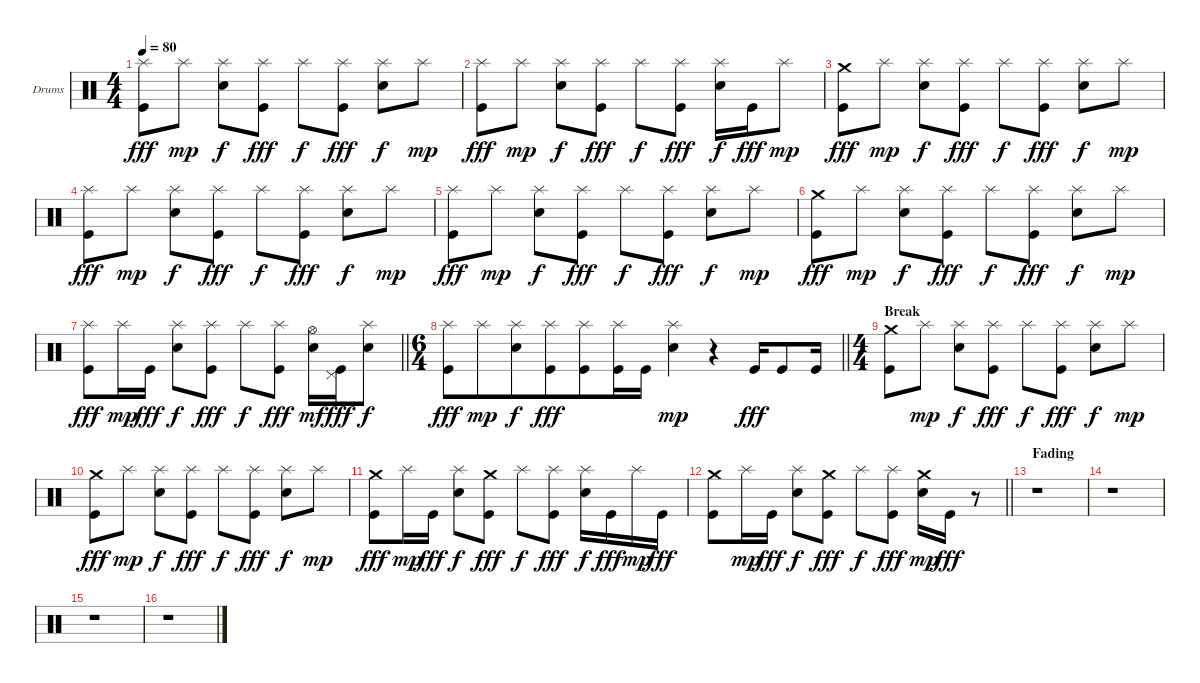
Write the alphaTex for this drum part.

\bracketExtendMode groupsimilarinstruments
\firstSystemTrackNameOrientation horizontal
\otherSystemsTrackNameOrientation horizontal
\track ("Drumkit" "Drums") {instrument percussion}
\staff {score}
\articulation defaults
\ts (4 4)
\tempo 80
\clef neutral
\ks c
("Kick (hit)" "Splash (hit)").8{dy fff} "Splash (hit)".8{dy mp} ("Splash (hit)" "Snare (hit) 2").8{dy f} ("Kick (hit)" "Splash (hit)").8{dy fff} "Splash (hit)".8{dy f} ("Kick (hit)" "Splash (hit)").8{dy fff} ("Splash (hit)" "Snare (hit) 2").8{dy f} "Splash (hit)".8{dy mp} |
("Kick (hit)" "Splash (hit)").8{dy fff} "Splash (hit)".8{dy mp} ("Splash (hit)" "Snare (hit) 2").8{dy f} ("Kick (hit)" "Splash (hit)").8{dy fff} "Splash (hit)".8{dy f} ("Kick (hit)" "Splash (hit)").8{dy fff} ("Splash (hit)" "Snare (hit) 2").16{dy f} "Kick (hit)".16{dy fff} "Splash (hit)".8{dy mp} |
("Kick (hit)" "Crash medium (hit)").8{dy fff} "Splash (hit)".8{dy mp} ("Splash (hit)" "Snare (hit) 2").8{dy f} ("Kick (hit)" "Splash (hit)").8{dy fff} "Splash (hit)".8{dy f} ("Kick (hit)" "Splash (hit)").8{dy fff} ("Splash (hit)" "Snare (hit) 2").8{dy f} "Splash (hit)".8{dy mp} |
("Kick (hit)" "Splash (hit)").8{dy fff} "Splash (hit)".8{dy mp} ("Splash (hit)" "Snare (hit) 2").8{dy f} ("Kick (hit)" "Splash (hit)").8{dy fff} "Splash (hit)".8{dy f} ("Kick (hit)" "Splash (hit)").8{dy fff} ("Splash (hit)" "Snare (hit) 2").8{dy f} "Splash (hit)".8{dy mp} |
("Kick (hit)" "Splash (hit)").8{dy fff} "Splash (hit)".8{dy mp} ("Splash (hit)" "Snare (hit) 2").8{dy f} ("Kick (hit)" "Splash (hit)").8{dy fff} "Splash (hit)".8{dy f} ("Kick (hit)" "Splash (hit)").8{dy fff} ("Splash (hit)" "Snare (hit) 2").8{dy f} "Splash (hit)".8{dy mp} |
("Kick (hit)" "Crash medium (hit)").8{dy fff} "Splash (hit)".8{dy mp} ("Splash (hit)" "Snare (hit) 2").8{dy f} ("Kick (hit)" "Splash (hit)").8{dy fff} "Splash (hit)".8{dy f} ("Kick (hit)" "Splash (hit)").8{dy fff} ("Splash (hit)" "Snare (hit) 2").8{dy f} "Splash (hit)".8{dy mp} |
\barLineRight lightlight
("Kick (hit)" "Splash (hit)").8{dy fff} "Splash (hit)".16{dy mp} "Kick (hit)".16{dy fff} ("Splash (hit)" "Snare (hit) 2").8{dy f} ("Kick (hit)" "Splash (hit)").8{dy fff} "Splash (hit)".8{dy f} ("Kick (hit)" "Splash (hit)").8{dy fff} ("Hi-Hat (open)" "Snare (hit) 2").16{dy mf} ("Kick (hit)" "Pedal Hi-Hat (hit)").16{dy fff} ("Splash (hit)" "Snare (hit) 2").8{dy f} |
\ts (6 4)
\beaming (8 6 6)
\barLineRight lightlight
("Kick (hit)" "Splash (hit)").8{dy fff} "Splash (hit)".8{dy mp} ("Splash (hit)" "Snare (hit) 2").8{dy f} ("Kick (hit)" "Splash (hit)").8{dy fff} ("Kick (hit)" "Splash (hit)").8 ("Kick (hit)" "Splash (hit)").16 "Kick (hit)".16 ("Splash (hit)" "Snare (hit) 2").4{dy mp} r.4 "Kick (hit)".16{dy fff} "Kick (hit)".8 "Kick (hit)".16 |
\ts (4 4)
\beaming (8 2 2 2 2)
\section ("" "Break")
("Kick (hit)" "Crash medium (hit)").8 "Splash (hit)".8{dy mp} ("Splash (hit)" "Snare (hit) 2").8{dy f} ("Kick (hit)" "Splash (hit)").8{dy fff} "Splash (hit)".8{dy f} ("Kick (hit)" "Splash (hit)").8{dy fff} ("Splash (hit)" "Snare (hit) 2").8{dy f} "Splash (hit)".8{dy mp} |
("Kick (hit)" "Crash medium (hit)").8{dy fff} "Splash (hit)".8{dy mp} ("Splash (hit)" "Snare (hit) 2").8{dy f} ("Kick (hit)" "Splash (hit)").8{dy fff} "Splash (hit)".8{dy f} ("Kick (hit)" "Splash (hit)").8{dy fff} ("Splash (hit)" "Snare (hit) 2").8{dy f} "Splash (hit)".8{dy mp} |
("Kick (hit)" "Crash medium (hit)").8{dy fff} "Splash (hit)".16{dy mp} "Kick (hit)".16{dy fff} ("Splash (hit)" "Snare (hit) 2").8{dy f} ("Kick (hit)" "Crash medium (hit)").8{dy fff} "Splash (hit)".8{dy f} ("Kick (hit)" "Splash (hit)").8{dy fff} ("Splash (hit)" "Snare (hit) 2").16{dy f} "Kick (hit)".16{dy fff} "Splash (hit)".16{dy mp} "Kick (hit)".16{dy fff} |
\barLineRight lightlight
("Kick (hit)" "Crash medium (hit)").8 "Splash (hit)".16{dy mp} "Kick (hit)".16{dy fff} ("Splash (hit)" "Snare (hit) 2").8{dy f} ("Kick (hit)" "Crash medium (hit)").8{dy fff} "Splash (hit)".8{dy f} ("Kick (hit)" "Splash (hit)").8{dy fff} ("Crash medium (hit)" "Snare (hit) 2").16{dy mp} "Kick (hit)".16{dy fff} r.8 |
\section ("" "Fading")
r.1 |
r.1 |
r.1 |
r.1
